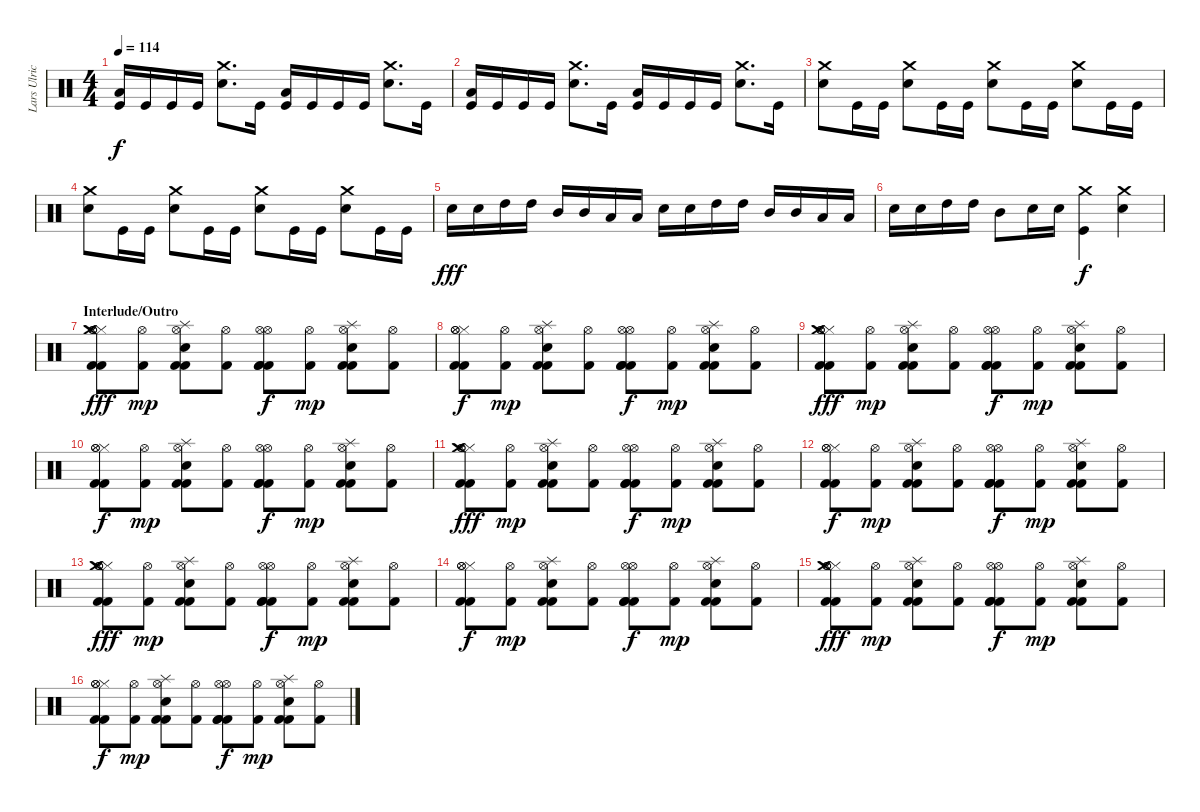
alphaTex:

\track ("Lars Ulrich" "Lars Ulric") {instrument percussion}
\staff {score}
\articulation defaults
\ts (4 4)
\tempo 114
\clef neutral
\ks c
("Kick (hit)" "Low Floor Tom (hit)").16{dy f} "Kick (hit)".16 "Kick (hit)".16 "Kick (hit)".16 ("Electric Snare (hit)" "Crash medium (hit)").8{d} "Kick (hit)".16 ("Kick (hit)" "Low Floor Tom (hit)").16 "Kick (hit)".16 "Kick (hit)".16 "Kick (hit)".16 ("Electric Snare (hit)" "Crash medium (hit)").8{d} "Kick (hit)".16 |
("Kick (hit)" "Low Floor Tom (hit)").16 "Kick (hit)".16 "Kick (hit)".16 "Kick (hit)".16 ("Electric Snare (hit)" "Crash medium (hit)").8{d} "Kick (hit)".16 ("Kick (hit)" "Low Floor Tom (hit)").16 "Kick (hit)".16 "Kick (hit)".16 "Kick (hit)".16 ("Electric Snare (hit)" "Crash medium (hit)").8{d} "Kick (hit)".16 |
("Electric Snare (hit)" "Crash medium (hit)").8 "Kick (hit)".16 "Kick (hit)".16 ("Electric Snare (hit)" "Crash medium (hit)").8 "Kick (hit)".16 "Kick (hit)".16 ("Electric Snare (hit)" "Crash medium (hit)").8 "Kick (hit)".16 "Kick (hit)".16 ("Electric Snare (hit)" "Crash medium (hit)").8 "Kick (hit)".16 "Kick (hit)".16 |
("Electric Snare (hit)" "Crash medium (hit)").8 "Kick (hit)".16 "Kick (hit)".16 ("Electric Snare (hit)" "Crash medium (hit)").8 "Kick (hit)".16 "Kick (hit)".16 ("Electric Snare (hit)" "Crash medium (hit)").8 "Kick (hit)".16 "Kick (hit)".16 ("Electric Snare (hit)" "Crash medium (hit)").8 "Kick (hit)".16 "Kick (hit)".16 |
"Electric Snare (hit)".16{dy fff} "Electric Snare (hit)".16 "High Tom (hit)".16 "High Tom (hit)".16 "Mid Tom (hit)".16 "Mid Tom (hit)".16 "Low Tom (hit)".16 "Low Tom (hit)".16 "Electric Snare (hit)".16 "Electric Snare (hit)".16 "High Tom (hit)".16 "High Tom (hit)".16 "Mid Tom (hit)".16 "Mid Tom (hit)".16 "Low Tom (hit)".16 "Low Tom (hit)".16 |
"Electric Snare (hit)".16 "Electric Snare (hit)".16 "High Tom (hit)".16 "High Tom (hit)".16 "Mid Tom (hit)".8 "Electric Snare (hit)".16 "Electric Snare (hit)".16 ("Kick (hit)" "Crash medium (hit)").4{dy f} ("Electric Snare (hit)" "Crash medium (hit)").4 |
\section ("" "Interlude/Outro")
("Hi-Hat (closed)" "Hi-Hat (open)" "Hi-Hat (open)" "Kick (hit) 2" "Kick (hit) 2" "Crash medium (hit)").8{dy fff} ("Hi-Hat (open)" "Kick (hit) 2").8{dy mp} ("Snare (hit) 2" "Splash (hit)" "Hi-Hat (open)" "Kick (hit) 2" "Kick (hit) 2").8 ("Hi-Hat (open)" "Kick (hit) 2").8 ("Kick (hit) 2" "Hi-Hat (open)" "Hi-Hat (open)" "Kick (hit) 2" "Kick (hit) 2").8{dy f} ("Hi-Hat (open)" "Kick (hit) 2").8{dy mp} ("Snare (hit) 2" "Splash (hit)" "Hi-Hat (open)" "Kick (hit) 2" "Kick (hit) 2").8 ("Hi-Hat (open)" "Kick (hit) 2").8 |
("Hi-Hat (closed)" "Hi-Hat (open)" "Hi-Hat (open)" "Kick (hit) 2" "Kick (hit) 2").8{dy f} ("Hi-Hat (open)" "Kick (hit) 2").8{dy mp} ("Snare (hit) 2" "Splash (hit)" "Hi-Hat (open)" "Kick (hit) 2" "Kick (hit) 2").8 ("Hi-Hat (open)" "Kick (hit) 2").8 ("Kick (hit) 2" "Hi-Hat (open)" "Hi-Hat (open)" "Kick (hit) 2" "Kick (hit) 2").8{dy f} ("Hi-Hat (open)" "Kick (hit) 2").8{dy mp} ("Snare (hit) 2" "Splash (hit)" "Hi-Hat (open)" "Kick (hit) 2" "Kick (hit) 2").8 ("Hi-Hat (open)" "Kick (hit) 2").8 |
("Hi-Hat (closed)" "Hi-Hat (open)" "Hi-Hat (open)" "Kick (hit) 2" "Kick (hit) 2" "Crash medium (hit)").8{dy fff} ("Hi-Hat (open)" "Kick (hit) 2").8{dy mp} ("Snare (hit) 2" "Splash (hit)" "Hi-Hat (open)" "Kick (hit) 2" "Kick (hit) 2").8 ("Hi-Hat (open)" "Kick (hit) 2").8 ("Kick (hit) 2" "Hi-Hat (open)" "Hi-Hat (open)" "Kick (hit) 2" "Kick (hit) 2").8{dy f} ("Hi-Hat (open)" "Kick (hit) 2").8{dy mp} ("Snare (hit) 2" "Splash (hit)" "Hi-Hat (open)" "Kick (hit) 2" "Kick (hit) 2").8 ("Hi-Hat (open)" "Kick (hit) 2").8 |
("Hi-Hat (closed)" "Hi-Hat (open)" "Hi-Hat (open)" "Kick (hit) 2" "Kick (hit) 2").8{dy f} ("Hi-Hat (open)" "Kick (hit) 2").8{dy mp} ("Snare (hit) 2" "Splash (hit)" "Hi-Hat (open)" "Kick (hit) 2" "Kick (hit) 2").8 ("Hi-Hat (open)" "Kick (hit) 2").8 ("Kick (hit) 2" "Hi-Hat (open)" "Hi-Hat (open)" "Kick (hit) 2" "Kick (hit) 2").8{dy f} ("Hi-Hat (open)" "Kick (hit) 2").8{dy mp} ("Snare (hit) 2" "Splash (hit)" "Hi-Hat (open)" "Kick (hit) 2" "Kick (hit) 2").8 ("Hi-Hat (open)" "Kick (hit) 2").8 |
("Hi-Hat (closed)" "Hi-Hat (open)" "Hi-Hat (open)" "Kick (hit) 2" "Kick (hit) 2" "Crash medium (hit)").8{dy fff} ("Hi-Hat (open)" "Kick (hit) 2").8{dy mp} ("Snare (hit) 2" "Splash (hit)" "Hi-Hat (open)" "Kick (hit) 2" "Kick (hit) 2").8 ("Hi-Hat (open)" "Kick (hit) 2").8 ("Kick (hit) 2" "Hi-Hat (open)" "Hi-Hat (open)" "Kick (hit) 2" "Kick (hit) 2").8{dy f} ("Hi-Hat (open)" "Kick (hit) 2").8{dy mp} ("Snare (hit) 2" "Splash (hit)" "Hi-Hat (open)" "Kick (hit) 2" "Kick (hit) 2").8 ("Hi-Hat (open)" "Kick (hit) 2").8 |
("Hi-Hat (closed)" "Hi-Hat (open)" "Hi-Hat (open)" "Kick (hit) 2" "Kick (hit) 2").8{dy f} ("Hi-Hat (open)" "Kick (hit) 2").8{dy mp} ("Snare (hit) 2" "Splash (hit)" "Hi-Hat (open)" "Kick (hit) 2" "Kick (hit) 2").8 ("Hi-Hat (open)" "Kick (hit) 2").8 ("Kick (hit) 2" "Hi-Hat (open)" "Hi-Hat (open)" "Kick (hit) 2" "Kick (hit) 2").8{dy f} ("Hi-Hat (open)" "Kick (hit) 2").8{dy mp} ("Snare (hit) 2" "Splash (hit)" "Hi-Hat (open)" "Kick (hit) 2" "Kick (hit) 2").8 ("Hi-Hat (open)" "Kick (hit) 2").8 |
("Hi-Hat (closed)" "Hi-Hat (open)" "Hi-Hat (open)" "Kick (hit) 2" "Kick (hit) 2" "Crash medium (hit)").8{dy fff} ("Hi-Hat (open)" "Kick (hit) 2").8{dy mp} ("Snare (hit) 2" "Splash (hit)" "Hi-Hat (open)" "Kick (hit) 2" "Kick (hit) 2").8 ("Hi-Hat (open)" "Kick (hit) 2").8 ("Kick (hit) 2" "Hi-Hat (open)" "Hi-Hat (open)" "Kick (hit) 2" "Kick (hit) 2").8{dy f} ("Hi-Hat (open)" "Kick (hit) 2").8{dy mp} ("Snare (hit) 2" "Splash (hit)" "Hi-Hat (open)" "Kick (hit) 2" "Kick (hit) 2").8 ("Hi-Hat (open)" "Kick (hit) 2").8 |
("Hi-Hat (closed)" "Hi-Hat (open)" "Hi-Hat (open)" "Kick (hit) 2" "Kick (hit) 2").8{dy f} ("Hi-Hat (open)" "Kick (hit) 2").8{dy mp} ("Snare (hit) 2" "Splash (hit)" "Hi-Hat (open)" "Kick (hit) 2" "Kick (hit) 2").8 ("Hi-Hat (open)" "Kick (hit) 2").8 ("Kick (hit) 2" "Hi-Hat (open)" "Hi-Hat (open)" "Kick (hit) 2" "Kick (hit) 2").8{dy f} ("Hi-Hat (open)" "Kick (hit) 2").8{dy mp} ("Snare (hit) 2" "Splash (hit)" "Hi-Hat (open)" "Kick (hit) 2" "Kick (hit) 2").8 ("Hi-Hat (open)" "Kick (hit) 2").8 |
("Hi-Hat (closed)" "Hi-Hat (open)" "Hi-Hat (open)" "Kick (hit) 2" "Kick (hit) 2" "Crash medium (hit)").8{dy fff} ("Hi-Hat (open)" "Kick (hit) 2").8{dy mp} ("Snare (hit) 2" "Splash (hit)" "Hi-Hat (open)" "Kick (hit) 2" "Kick (hit) 2").8 ("Hi-Hat (open)" "Kick (hit) 2").8 ("Kick (hit) 2" "Hi-Hat (open)" "Hi-Hat (open)" "Kick (hit) 2" "Kick (hit) 2").8{dy f} ("Hi-Hat (open)" "Kick (hit) 2").8{dy mp} ("Snare (hit) 2" "Splash (hit)" "Hi-Hat (open)" "Kick (hit) 2" "Kick (hit) 2").8 ("Hi-Hat (open)" "Kick (hit) 2").8 |
("Hi-Hat (closed)" "Hi-Hat (open)" "Hi-Hat (open)" "Kick (hit) 2" "Kick (hit) 2").8{dy f} ("Hi-Hat (open)" "Kick (hit) 2").8{dy mp} ("Snare (hit) 2" "Splash (hit)" "Hi-Hat (open)" "Kick (hit) 2" "Kick (hit) 2").8 ("Hi-Hat (open)" "Kick (hit) 2").8 ("Kick (hit) 2" "Hi-Hat (open)" "Hi-Hat (open)" "Kick (hit) 2" "Kick (hit) 2").8{dy f} ("Hi-Hat (open)" "Kick (hit) 2").8{dy mp} ("Snare (hit) 2" "Splash (hit)" "Hi-Hat (open)" "Kick (hit) 2" "Kick (hit) 2").8 ("Hi-Hat (open)" "Kick (hit) 2").8
